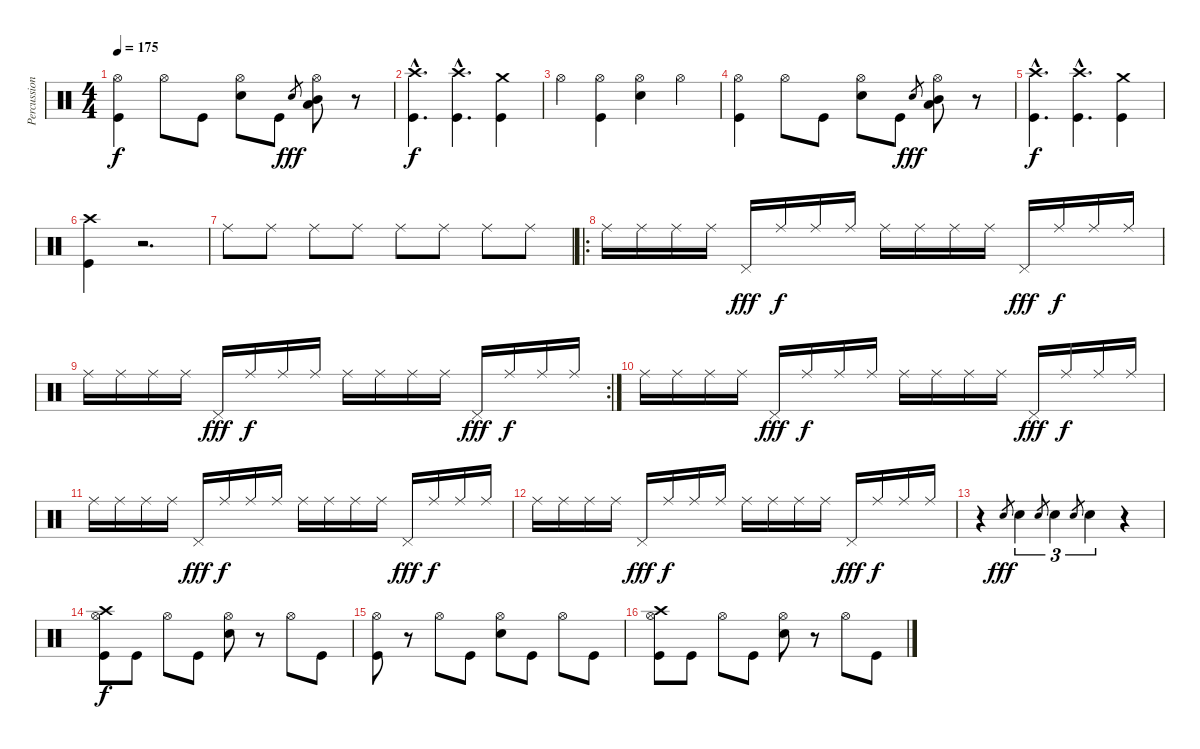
\track ("Percussions" "Percussion") {instrument percussion}
\staff {score}
\articulation defaults
\ts (4 4)
\tempo 175
\clef neutral
\ks c
("Hi-Hat (open)" "Kick (hit)").4{dy f} "Hi-Hat (open)".8 "Kick (hit)".8 ("Hi-Hat (open)" "Snare (hit) 2").8 "Kick (hit)".8 "Snare (hit) 2".8{gr dy fff} ("Hi-Hat (open)" "Low Tom (hit)" "Mid Tom (hit)").8 r.8 |
("Crash high (hit)"{hac} "Kick (hit)"{hac}).4{d dy f} ("Crash high (hit)"{hac} "Kick (hit)"{hac}).4{d} ("Crash medium (hit)" "Kick (hit)").4 |
"Hi-Hat (open)".4 ("Hi-Hat (open)" "Kick (hit)").4 ("Hi-Hat (open)" "Snare (hit) 2").4 "Hi-Hat (open)".4 |
("Hi-Hat (open)" "Kick (hit)").4 "Hi-Hat (open)".8 "Kick (hit)".8 ("Hi-Hat (open)" "Snare (hit) 2").8 "Kick (hit)".8 "Snare (hit) 2".8{gr dy fff} ("Hi-Hat (open)" "Low Tom (hit)" "Mid Tom (hit)").8 r.8 |
("Crash high (hit)"{hac} "Kick (hit)"{hac}).4{d dy f} ("Crash high (hit)"{hac} "Kick (hit)"{hac}).4{d} ("Crash medium (hit)" "Kick (hit)").4 |
("Crash high (hit)" "Kick (hit)").4 r.2{d} |
"Ride (middle)".8 "Ride (middle)".8 "Ride (middle)".8 "Ride (middle)".8 "Ride (middle)".8 "Ride (middle)".8 "Ride (middle)".8 "Ride (middle)".8 |
\ro "Ride (middle)".16 "Ride (middle)".16 "Ride (middle)".16 "Ride (middle)".16 "Pedal Hi-Hat (hit)".16{dy fff} "Ride (middle)".16{dy f} "Ride (middle)".16 "Ride (middle)".16 "Ride (middle)".16 "Ride (middle)".16 "Ride (middle)".16 "Ride (middle)".16 "Pedal Hi-Hat (hit)".16{dy fff} "Ride (middle)".16{dy f} "Ride (middle)".16 "Ride (middle)".16
|
\rc 2 "Ride (middle)".16 "Ride (middle)".16 "Ride (middle)".16 "Ride (middle)".16 "Pedal Hi-Hat (hit)".16{dy fff} "Ride (middle)".16{dy f} "Ride (middle)".16 "Ride (middle)".16 "Ride (middle)".16 "Ride (middle)".16 "Ride (middle)".16 "Ride (middle)".16 "Pedal Hi-Hat (hit)".16{dy fff} "Ride (middle)".16{dy f} "Ride (middle)".16 "Ride (middle)".16
|
"Ride (middle)".16 "Ride (middle)".16 "Ride (middle)".16 "Ride (middle)".16 "Pedal Hi-Hat (hit)".16{dy fff} "Ride (middle)".16{dy f} "Ride (middle)".16 "Ride (middle)".16 "Ride (middle)".16 "Ride (middle)".16 "Ride (middle)".16 "Ride (middle)".16 "Pedal Hi-Hat (hit)".16{dy fff} "Ride (middle)".16{dy f} "Ride (middle)".16 "Ride (middle)".16 |
"Ride (middle)".16 "Ride (middle)".16 "Ride (middle)".16 "Ride (middle)".16 "Pedal Hi-Hat (hit)".16{dy fff} "Ride (middle)".16{dy f} "Ride (middle)".16 "Ride (middle)".16 "Ride (middle)".16 "Ride (middle)".16 "Ride (middle)".16 "Ride (middle)".16 "Pedal Hi-Hat (hit)".16{dy fff} "Ride (middle)".16{dy f} "Ride (middle)".16 "Ride (middle)".16 |
"Ride (middle)".16 "Ride (middle)".16 "Ride (middle)".16 "Ride (middle)".16 "Pedal Hi-Hat (hit)".16{dy fff} "Ride (middle)".16{dy f} "Ride (middle)".16 "Ride (middle)".16 "Ride (middle)".16 "Ride (middle)".16 "Ride (middle)".16 "Ride (middle)".16 "Pedal Hi-Hat (hit)".16{dy fff} "Ride (middle)".16{dy f} "Ride (middle)".16 "Ride (middle)".16 |
r.4 "Snare (hit) 2".8{gr dy fff} "Snare (hit) 2".4{tu (3 2)} "Snare (hit) 2".8{gr} "Snare (hit) 2".4{tu (3 2)} "Snare (hit) 2".8{gr} "Snare (hit) 2".4{tu (3 2)} r.4 |
("Hi-Hat (open)" "Crash high (hit)" "Kick (hit)").8{dy f} "Kick (hit)".8 "Hi-Hat (open)".8 "Kick (hit)".8 ("Hi-Hat (open)" "Snare (hit) 2").8 r.8 "Hi-Hat (open)".8 "Kick (hit)".8 |
("Hi-Hat (open)" "Kick (hit)").8 r.8 "Hi-Hat (open)".8 "Kick (hit)".8 ("Hi-Hat (open)" "Snare (hit) 2").8 "Kick (hit)".8 "Hi-Hat (open)".8 "Kick (hit)".8 |
("Hi-Hat (open)" "Crash high (hit)" "Kick (hit)").8 "Kick (hit)".8 "Hi-Hat (open)".8 "Kick (hit)".8 ("Hi-Hat (open)" "Snare (hit) 2").8 r.8 "Hi-Hat (open)".8 "Kick (hit)".8
